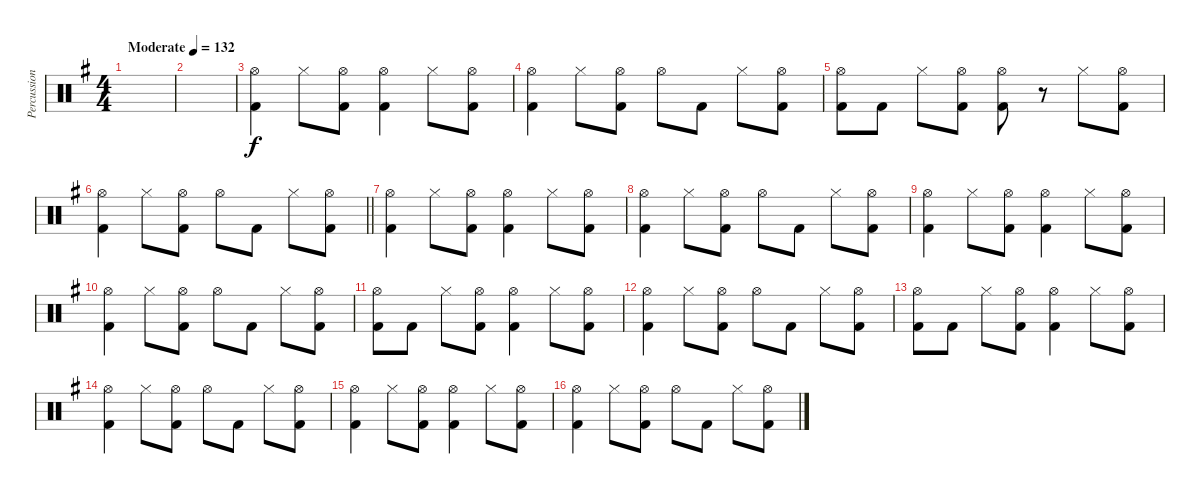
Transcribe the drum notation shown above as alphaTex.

\track ("Percussion" "Percussion") {instrument percussion}
\staff {score}
\articulation defaults
\ts (4 4)
\tempo (132 "Moderate")
\clef neutral
\ks eminor
|
|
("Hi-Hat (open)" "Kick (hit) 2").4 "Hi-Hat (closed)".8 ("Hi-Hat (open)" "Kick (hit) 2").8 ("Hi-Hat (open)" "Kick (hit) 2").4 "Hi-Hat (closed)".8 ("Hi-Hat (open)" "Kick (hit) 2").8 |
("Hi-Hat (open)" "Kick (hit) 2").4 "Hi-Hat (closed)".8 ("Hi-Hat (open)" "Kick (hit) 2").8 "Hi-Hat (open)".8 "Kick (hit) 2".8 "Hi-Hat (closed)".8 ("Hi-Hat (open)" "Kick (hit) 2").8 |
("Hi-Hat (open)" "Kick (hit) 2").8 "Kick (hit) 2".8 "Hi-Hat (closed)".8 ("Hi-Hat (open)" "Kick (hit) 2").8 ("Hi-Hat (open)" "Kick (hit) 2").8 r.8 "Hi-Hat (closed)".8 ("Hi-Hat (open)" "Kick (hit) 2").8 |
\barLineRight lightlight
("Hi-Hat (open)" "Kick (hit) 2").4 "Hi-Hat (closed)".8 ("Hi-Hat (open)" "Kick (hit) 2").8 "Hi-Hat (open)".8 "Kick (hit) 2".8 "Hi-Hat (closed)".8 ("Hi-Hat (open)" "Kick (hit) 2").8 |
("Hi-Hat (open)" "Kick (hit) 2").4 "Hi-Hat (closed)".8 ("Hi-Hat (open)" "Kick (hit) 2").8 ("Hi-Hat (open)" "Kick (hit) 2").4 "Hi-Hat (closed)".8 ("Hi-Hat (open)" "Kick (hit) 2").8 |
("Hi-Hat (open)" "Kick (hit) 2").4 "Hi-Hat (closed)".8 ("Hi-Hat (open)" "Kick (hit) 2").8 "Hi-Hat (open)".8 "Kick (hit) 2".8 "Hi-Hat (closed)".8 ("Hi-Hat (open)" "Kick (hit) 2").8 |
("Hi-Hat (open)" "Kick (hit) 2").4 "Hi-Hat (closed)".8 ("Hi-Hat (open)" "Kick (hit) 2").8 ("Hi-Hat (open)" "Kick (hit) 2").4 "Hi-Hat (closed)".8 ("Hi-Hat (open)" "Kick (hit) 2").8 |
("Hi-Hat (open)" "Kick (hit) 2").4 "Hi-Hat (closed)".8 ("Hi-Hat (open)" "Kick (hit) 2").8 "Hi-Hat (open)".8 "Kick (hit) 2".8 "Hi-Hat (closed)".8 ("Hi-Hat (open)" "Kick (hit) 2").8 |
("Hi-Hat (open)" "Kick (hit) 2").8 "Kick (hit) 2".8 "Hi-Hat (closed)".8 ("Hi-Hat (open)" "Kick (hit) 2").8 ("Hi-Hat (open)" "Kick (hit) 2").4 "Hi-Hat (closed)".8 ("Hi-Hat (open)" "Kick (hit) 2").8 |
("Hi-Hat (open)" "Kick (hit) 2").4 "Hi-Hat (closed)".8 ("Hi-Hat (open)" "Kick (hit) 2").8 "Hi-Hat (open)".8 "Kick (hit) 2".8 "Hi-Hat (closed)".8 ("Hi-Hat (open)" "Kick (hit) 2").8 |
("Hi-Hat (open)" "Kick (hit) 2").8 "Kick (hit) 2".8 "Hi-Hat (closed)".8 ("Hi-Hat (open)" "Kick (hit) 2").8 ("Hi-Hat (open)" "Kick (hit) 2").4 "Hi-Hat (closed)".8 ("Hi-Hat (open)" "Kick (hit) 2").8 |
("Hi-Hat (open)" "Kick (hit) 2").4 "Hi-Hat (closed)".8 ("Hi-Hat (open)" "Kick (hit) 2").8 "Hi-Hat (open)".8 "Kick (hit) 2".8 "Hi-Hat (closed)".8 ("Hi-Hat (open)" "Kick (hit) 2").8 |
("Hi-Hat (open)" "Kick (hit) 2").4 "Hi-Hat (closed)".8 ("Hi-Hat (open)" "Kick (hit) 2").8 ("Hi-Hat (open)" "Kick (hit) 2").4 "Hi-Hat (closed)".8 ("Hi-Hat (open)" "Kick (hit) 2").8 |
("Hi-Hat (open)" "Kick (hit) 2").4 "Hi-Hat (closed)".8 ("Hi-Hat (open)" "Kick (hit) 2").8 "Hi-Hat (open)".8 "Kick (hit) 2".8 "Hi-Hat (closed)".8 ("Hi-Hat (open)" "Kick (hit) 2").8
